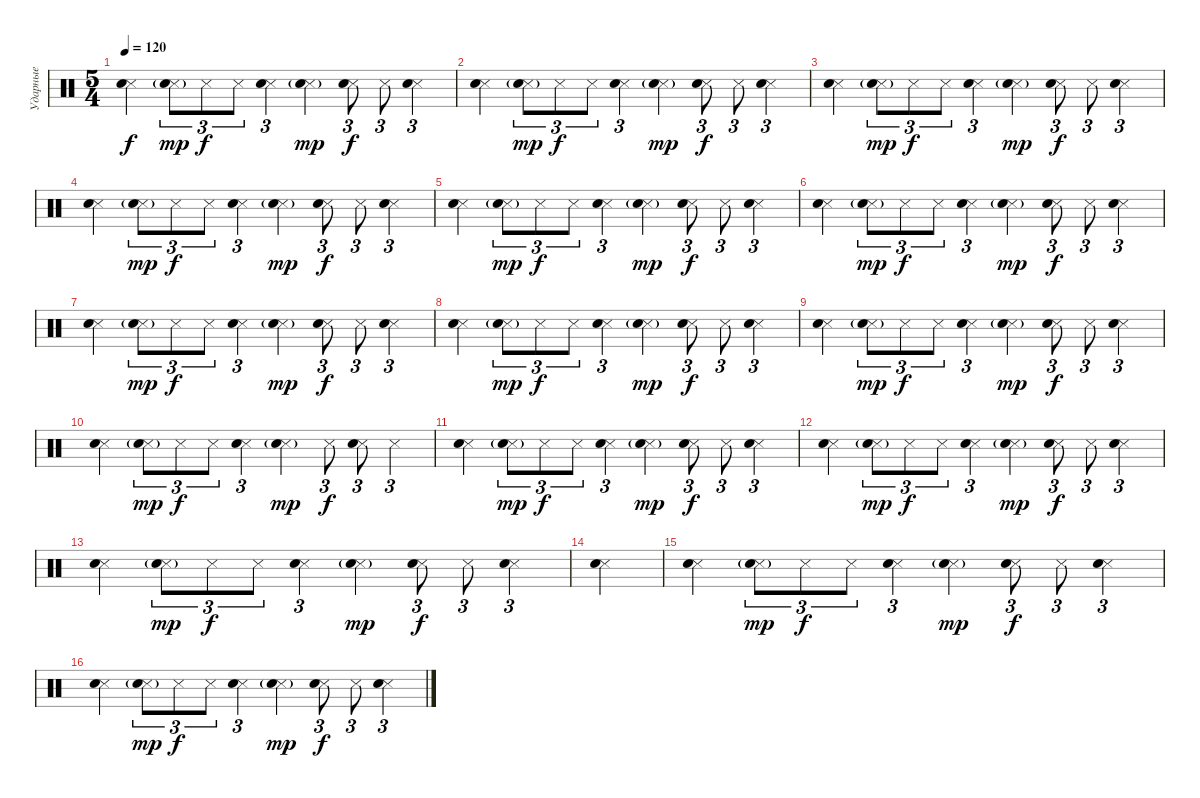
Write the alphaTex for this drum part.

\track ("Ударные" "Ударные") {instrument percussion}
\staff {score}
\articulation defaults
\ts (5 4)
\tempo 120
\clef neutral
\ks c
("Snare (side stick) 3" "Hand Clap (hit)").4{dy f} ("Snare (side stick) 3"{g} "Hand Clap (hit)"{g}).8{tu (3 2) dy mp} "Snare (side stick) 3".8{tu (3 2) dy f} "Snare (side stick) 3".8{tu (3 2)} ("Snare (side stick) 3" "Hand Clap (hit)").4{tu (3 2)} ("Snare (side stick) 3"{g} "Hand Clap (hit)"{g}).4{dy mp} ("Snare (side stick) 3" "Hand Clap (hit)").8{tu (3 2) dy f} "Snare (side stick) 3".8{tu (3 2)} ("Snare (side stick) 3" "Hand Clap (hit)").4{tu (3 2)} |
("Snare (side stick) 3" "Hand Clap (hit)").4 ("Snare (side stick) 3"{g} "Hand Clap (hit)"{g}).8{tu (3 2) dy mp} "Snare (side stick) 3".8{tu (3 2) dy f} "Snare (side stick) 3".8{tu (3 2)} ("Snare (side stick) 3" "Hand Clap (hit)").4{tu (3 2)} ("Snare (side stick) 3"{g} "Hand Clap (hit)"{g}).4{dy mp} ("Snare (side stick) 3" "Hand Clap (hit)").8{tu (3 2) dy f} "Snare (side stick) 3".8{tu (3 2)} ("Snare (side stick) 3" "Hand Clap (hit)").4{tu (3 2)} |
("Snare (side stick) 3" "Hand Clap (hit)").4 ("Snare (side stick) 3"{g} "Hand Clap (hit)"{g}).8{tu (3 2) dy mp} "Snare (side stick) 3".8{tu (3 2) dy f} "Snare (side stick) 3".8{tu (3 2)} ("Snare (side stick) 3" "Hand Clap (hit)").4{tu (3 2)} ("Snare (side stick) 3"{g} "Hand Clap (hit)"{g}).4{dy mp} ("Snare (side stick) 3" "Hand Clap (hit)").8{tu (3 2) dy f} "Snare (side stick) 3".8{tu (3 2)} ("Snare (side stick) 3" "Hand Clap (hit)").4{tu (3 2)} |
("Snare (side stick) 3" "Hand Clap (hit)").4 ("Snare (side stick) 3"{g} "Hand Clap (hit)"{g}).8{tu (3 2) dy mp} "Snare (side stick) 3".8{tu (3 2) dy f} "Snare (side stick) 3".8{tu (3 2)} ("Snare (side stick) 3" "Hand Clap (hit)").4{tu (3 2)} ("Snare (side stick) 3"{g} "Hand Clap (hit)"{g}).4{dy mp} ("Snare (side stick) 3" "Hand Clap (hit)").8{tu (3 2) dy f} "Snare (side stick) 3".8{tu (3 2)} ("Snare (side stick) 3" "Hand Clap (hit)").4{tu (3 2)} |
("Snare (side stick) 3" "Hand Clap (hit)").4 ("Snare (side stick) 3"{g} "Hand Clap (hit)"{g}).8{tu (3 2) dy mp} "Snare (side stick) 3".8{tu (3 2) dy f} "Snare (side stick) 3".8{tu (3 2)} ("Snare (side stick) 3" "Hand Clap (hit)").4{tu (3 2)} ("Snare (side stick) 3"{g} "Hand Clap (hit)"{g}).4{dy mp} ("Snare (side stick) 3" "Hand Clap (hit)").8{tu (3 2) dy f} "Snare (side stick) 3".8{tu (3 2)} ("Snare (side stick) 3" "Hand Clap (hit)").4{tu (3 2)} |
("Snare (side stick) 3" "Hand Clap (hit)").4 ("Snare (side stick) 3"{g} "Hand Clap (hit)"{g}).8{tu (3 2) dy mp} "Snare (side stick) 3".8{tu (3 2) dy f} "Snare (side stick) 3".8{tu (3 2)} ("Snare (side stick) 3" "Hand Clap (hit)").4{tu (3 2)} ("Snare (side stick) 3"{g} "Hand Clap (hit)"{g}).4{dy mp} ("Snare (side stick) 3" "Hand Clap (hit)").8{tu (3 2) dy f} "Snare (side stick) 3".8{tu (3 2)} ("Snare (side stick) 3" "Hand Clap (hit)").4{tu (3 2)} |
("Snare (side stick) 3" "Hand Clap (hit)").4 ("Snare (side stick) 3"{g} "Hand Clap (hit)"{g}).8{tu (3 2) dy mp} "Snare (side stick) 3".8{tu (3 2) dy f} "Snare (side stick) 3".8{tu (3 2)} ("Snare (side stick) 3" "Hand Clap (hit)").4{tu (3 2)} ("Snare (side stick) 3"{g} "Hand Clap (hit)"{g}).4{dy mp} ("Snare (side stick) 3" "Hand Clap (hit)").8{tu (3 2) dy f} "Snare (side stick) 3".8{tu (3 2)} ("Snare (side stick) 3" "Hand Clap (hit)").4{tu (3 2)} |
("Snare (side stick) 3" "Hand Clap (hit)").4 ("Snare (side stick) 3"{g} "Hand Clap (hit)"{g}).8{tu (3 2) dy mp} "Snare (side stick) 3".8{tu (3 2) dy f} "Snare (side stick) 3".8{tu (3 2)} ("Snare (side stick) 3" "Hand Clap (hit)").4{tu (3 2)} ("Snare (side stick) 3"{g} "Hand Clap (hit)"{g}).4{dy mp} ("Snare (side stick) 3" "Hand Clap (hit)").8{tu (3 2) dy f} "Snare (side stick) 3".8{tu (3 2)} ("Snare (side stick) 3" "Hand Clap (hit)").4{tu (3 2)} |
("Snare (side stick) 3" "Hand Clap (hit)").4 ("Snare (side stick) 3"{g} "Hand Clap (hit)"{g}).8{tu (3 2) dy mp} "Snare (side stick) 3".8{tu (3 2) dy f} "Snare (side stick) 3".8{tu (3 2)} ("Snare (side stick) 3" "Hand Clap (hit)").4{tu (3 2)} ("Snare (side stick) 3"{g} "Hand Clap (hit)"{g}).4{dy mp} ("Snare (side stick) 3" "Hand Clap (hit)").8{tu (3 2) dy f} "Snare (side stick) 3".8{tu (3 2)} ("Snare (side stick) 3" "Hand Clap (hit)").4{tu (3 2)} |
("Snare (side stick) 3" "Hand Clap (hit)").4 ("Snare (side stick) 3"{g} "Hand Clap (hit)"{g}).8{tu (3 2) dy mp} "Snare (side stick) 3".8{tu (3 2) dy f} "Snare (side stick) 3".8{tu (3 2)} ("Snare (side stick) 3" "Hand Clap (hit)").4{tu (3 2)} ("Snare (side stick) 3"{g} "Hand Clap (hit)"{g}).4{dy mp} "Snare (side stick) 3".8{tu (3 2) dy f} ("Snare (side stick) 3" "Hand Clap (hit)").8{tu (3 2)} "Snare (side stick) 3".4{tu (3 2)} |
("Snare (side stick) 3" "Hand Clap (hit)").4 ("Snare (side stick) 3"{g} "Hand Clap (hit)"{g}).8{tu (3 2) dy mp} "Snare (side stick) 3".8{tu (3 2) dy f} "Snare (side stick) 3".8{tu (3 2)} ("Snare (side stick) 3" "Hand Clap (hit)").4{tu (3 2)} ("Snare (side stick) 3"{g} "Hand Clap (hit)"{g}).4{dy mp} ("Snare (side stick) 3" "Hand Clap (hit)").8{tu (3 2) dy f} "Snare (side stick) 3".8{tu (3 2)} ("Snare (side stick) 3" "Hand Clap (hit)").4{tu (3 2)} |
("Snare (side stick) 3" "Hand Clap (hit)").4 ("Snare (side stick) 3"{g} "Hand Clap (hit)"{g}).8{tu (3 2) dy mp} "Snare (side stick) 3".8{tu (3 2) dy f} "Snare (side stick) 3".8{tu (3 2)} ("Snare (side stick) 3" "Hand Clap (hit)").4{tu (3 2)} ("Snare (side stick) 3"{g} "Hand Clap (hit)"{g}).4{dy mp} ("Snare (side stick) 3" "Hand Clap (hit)").8{tu (3 2) dy f} "Snare (side stick) 3".8{tu (3 2)} ("Snare (side stick) 3" "Hand Clap (hit)").4{tu (3 2)} |
("Snare (side stick) 3" "Hand Clap (hit)").4 ("Snare (side stick) 3"{g} "Hand Clap (hit)"{g}).8{tu (3 2) dy mp} "Snare (side stick) 3".8{tu (3 2) dy f} "Snare (side stick) 3".8{tu (3 2)} ("Snare (side stick) 3" "Hand Clap (hit)").4{tu (3 2)} ("Snare (side stick) 3"{g} "Hand Clap (hit)"{g}).4{dy mp} ("Snare (side stick) 3" "Hand Clap (hit)").8{tu (3 2) dy f} "Snare (side stick) 3".8{tu (3 2)} ("Snare (side stick) 3" "Hand Clap (hit)").4{tu (3 2)} |
("Snare (side stick) 3" "Hand Clap (hit)").4 |
("Snare (side stick) 3" "Hand Clap (hit)").4 ("Snare (side stick) 3"{g} "Hand Clap (hit)"{g}).8{tu (3 2) dy mp} "Snare (side stick) 3".8{tu (3 2) dy f} "Snare (side stick) 3".8{tu (3 2)} ("Snare (side stick) 3" "Hand Clap (hit)").4{tu (3 2)} ("Snare (side stick) 3"{g} "Hand Clap (hit)"{g}).4{dy mp} ("Snare (side stick) 3" "Hand Clap (hit)").8{tu (3 2) dy f} "Snare (side stick) 3".8{tu (3 2)} ("Snare (side stick) 3" "Hand Clap (hit)").4{tu (3 2)} |
("Snare (side stick) 3" "Hand Clap (hit)").4 ("Snare (side stick) 3"{g} "Hand Clap (hit)"{g}).8{tu (3 2) dy mp} "Snare (side stick) 3".8{tu (3 2) dy f} "Snare (side stick) 3".8{tu (3 2)} ("Snare (side stick) 3" "Hand Clap (hit)").4{tu (3 2)} ("Snare (side stick) 3"{g} "Hand Clap (hit)"{g}).4{dy mp} ("Snare (side stick) 3" "Hand Clap (hit)").8{tu (3 2) dy f} "Snare (side stick) 3".8{tu (3 2)} ("Snare (side stick) 3" "Hand Clap (hit)").4{tu (3 2)}
